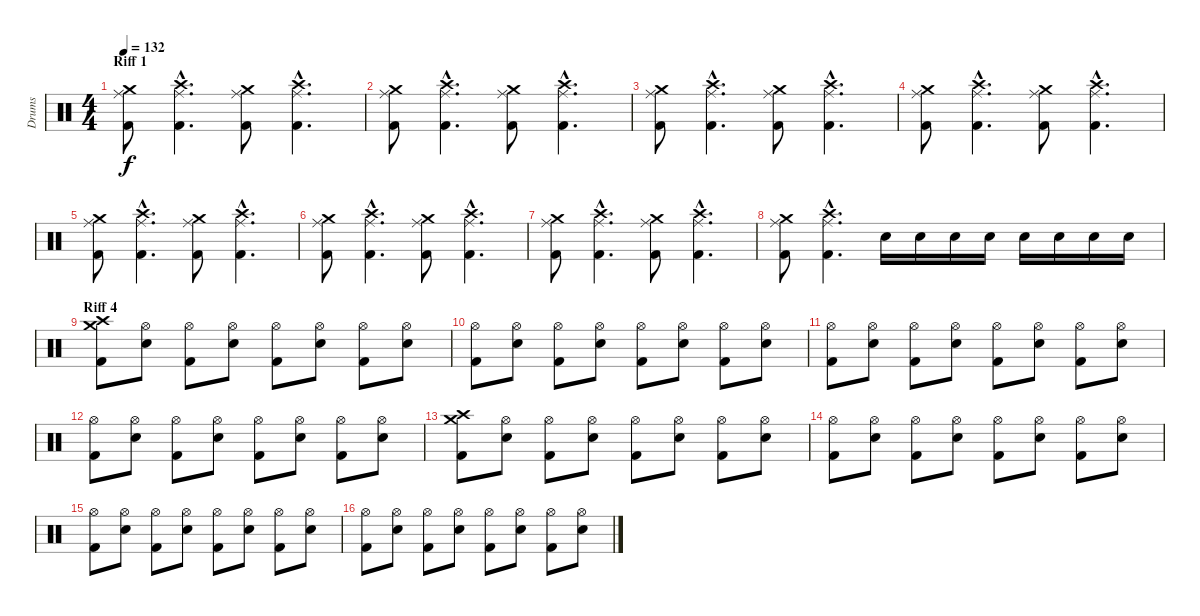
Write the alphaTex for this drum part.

\track ("Drums" "Drums") {instrument percussion}
\staff {score}
\articulation defaults
\ts (4 4)
\section ("" "Riff 1")
\tempo 132
\clef neutral
\ks c
("Ride (middle)" "Crash medium (hit)" "Kick (hit) 2").8{dy f} ("Ride (middle)"{hac} "Crash high (hit)"{hac} "Kick (hit) 2"{hac}).4{d} ("Ride (middle)" "Crash medium (hit)" "Kick (hit) 2").8 ("Ride (middle)"{hac} "Crash high (hit)"{hac} "Kick (hit) 2"{hac}).4{d} |
("Ride (middle)" "Crash medium (hit)" "Kick (hit) 2").8 ("Ride (middle)"{hac} "Crash high (hit)"{hac} "Kick (hit) 2"{hac}).4{d} ("Ride (middle)" "Crash medium (hit)" "Kick (hit) 2").8 ("Ride (middle)"{hac} "Crash high (hit)"{hac} "Kick (hit) 2"{hac}).4{d} |
("Ride (middle)" "Crash medium (hit)" "Kick (hit) 2").8 ("Ride (middle)"{hac} "Crash high (hit)"{hac} "Kick (hit) 2"{hac}).4{d} ("Ride (middle)" "Crash medium (hit)" "Kick (hit) 2").8 ("Ride (middle)"{hac} "Crash high (hit)"{hac} "Kick (hit) 2"{hac}).4{d} |
("Ride (middle)" "Crash medium (hit)" "Kick (hit) 2").8 ("Ride (middle)"{hac} "Crash high (hit)"{hac} "Kick (hit) 2"{hac}).4{d} ("Ride (middle)" "Crash medium (hit)" "Kick (hit) 2").8 ("Ride (middle)"{hac} "Crash high (hit)"{hac} "Kick (hit) 2"{hac}).4{d} |
("Ride (middle)" "Crash medium (hit)" "Kick (hit) 2").8 ("Ride (middle)"{hac} "Crash high (hit)"{hac} "Kick (hit) 2"{hac}).4{d} ("Ride (middle)" "Crash medium (hit)" "Kick (hit) 2").8 ("Ride (middle)"{hac} "Crash high (hit)"{hac} "Kick (hit) 2"{hac}).4{d} |
("Ride (middle)" "Crash medium (hit)" "Kick (hit) 2").8 ("Ride (middle)"{hac} "Crash high (hit)"{hac} "Kick (hit) 2"{hac}).4{d} ("Ride (middle)" "Crash medium (hit)" "Kick (hit) 2").8 ("Ride (middle)"{hac} "Crash high (hit)"{hac} "Kick (hit) 2"{hac}).4{d} |
("Ride (middle)" "Crash medium (hit)" "Kick (hit) 2").8 ("Ride (middle)"{hac} "Crash high (hit)"{hac} "Kick (hit) 2"{hac}).4{d} ("Ride (middle)" "Crash medium (hit)" "Kick (hit) 2").8 ("Ride (middle)"{hac} "Crash high (hit)"{hac} "Kick (hit) 2"{hac}).4{d} |
("Ride (middle)" "Crash medium (hit)" "Kick (hit) 2").8 ("Ride (middle)"{hac} "Crash high (hit)"{hac} "Kick (hit) 2"{hac}).4{d} "Electric Snare (hit)".16 "Electric Snare (hit)".16 "Electric Snare (hit)".16 "Electric Snare (hit)".16 "Electric Snare (hit)".16 "Electric Snare (hit)".16 "Electric Snare (hit)".16 "Electric Snare (hit)".16 |
\section ("" "Riff 4")
("Crash high (hit)" "Crash medium (hit)" "Kick (hit) 2").8 ("Hi-Hat (open)" "Electric Snare (hit)").8 ("Hi-Hat (open)" "Kick (hit) 2").8 ("Hi-Hat (open)" "Electric Snare (hit)").8 ("Hi-Hat (open)" "Kick (hit) 2").8 ("Hi-Hat (open)" "Electric Snare (hit)").8 ("Hi-Hat (open)" "Kick (hit) 2").8 ("Hi-Hat (open)" "Electric Snare (hit)").8 |
("Hi-Hat (open)" "Kick (hit) 2").8 ("Hi-Hat (open)" "Electric Snare (hit)").8 ("Hi-Hat (open)" "Kick (hit) 2").8 ("Hi-Hat (open)" "Electric Snare (hit)").8 ("Hi-Hat (open)" "Kick (hit) 2").8 ("Hi-Hat (open)" "Electric Snare (hit)").8 ("Hi-Hat (open)" "Kick (hit) 2").8 ("Hi-Hat (open)" "Electric Snare (hit)").8 |
("Hi-Hat (open)" "Kick (hit) 2").8 ("Hi-Hat (open)" "Electric Snare (hit)").8 ("Hi-Hat (open)" "Kick (hit) 2").8 ("Hi-Hat (open)" "Electric Snare (hit)").8 ("Hi-Hat (open)" "Kick (hit) 2").8 ("Hi-Hat (open)" "Electric Snare (hit)").8 ("Hi-Hat (open)" "Kick (hit) 2").8 ("Hi-Hat (open)" "Electric Snare (hit)").8 |
("Hi-Hat (open)" "Kick (hit) 2").8 ("Hi-Hat (open)" "Electric Snare (hit)").8 ("Hi-Hat (open)" "Kick (hit) 2").8 ("Hi-Hat (open)" "Electric Snare (hit)").8 ("Hi-Hat (open)" "Kick (hit) 2").8 ("Hi-Hat (open)" "Electric Snare (hit)").8 ("Hi-Hat (open)" "Kick (hit) 2").8 ("Hi-Hat (open)" "Electric Snare (hit)").8 |
("Crash high (hit)" "Crash medium (hit)" "Kick (hit) 2").8 ("Hi-Hat (open)" "Electric Snare (hit)").8 ("Hi-Hat (open)" "Kick (hit) 2").8 ("Hi-Hat (open)" "Electric Snare (hit)").8 ("Hi-Hat (open)" "Kick (hit) 2").8 ("Hi-Hat (open)" "Electric Snare (hit)").8 ("Hi-Hat (open)" "Kick (hit) 2").8 ("Hi-Hat (open)" "Electric Snare (hit)").8 |
("Hi-Hat (open)" "Kick (hit) 2").8 ("Hi-Hat (open)" "Electric Snare (hit)").8 ("Hi-Hat (open)" "Kick (hit) 2").8 ("Hi-Hat (open)" "Electric Snare (hit)").8 ("Hi-Hat (open)" "Kick (hit) 2").8 ("Hi-Hat (open)" "Electric Snare (hit)").8 ("Hi-Hat (open)" "Kick (hit) 2").8 ("Hi-Hat (open)" "Electric Snare (hit)").8 |
("Hi-Hat (open)" "Kick (hit) 2").8 ("Hi-Hat (open)" "Electric Snare (hit)").8 ("Hi-Hat (open)" "Kick (hit) 2").8 ("Hi-Hat (open)" "Electric Snare (hit)").8 ("Hi-Hat (open)" "Kick (hit) 2").8 ("Hi-Hat (open)" "Electric Snare (hit)").8 ("Hi-Hat (open)" "Kick (hit) 2").8 ("Hi-Hat (open)" "Electric Snare (hit)").8 |
("Hi-Hat (open)" "Kick (hit) 2").8 ("Hi-Hat (open)" "Electric Snare (hit)").8 ("Hi-Hat (open)" "Kick (hit) 2").8 ("Hi-Hat (open)" "Electric Snare (hit)").8 ("Hi-Hat (open)" "Kick (hit) 2").8 ("Hi-Hat (open)" "Electric Snare (hit)").8 ("Hi-Hat (open)" "Kick (hit) 2").8 ("Hi-Hat (open)" "Electric Snare (hit)").8
